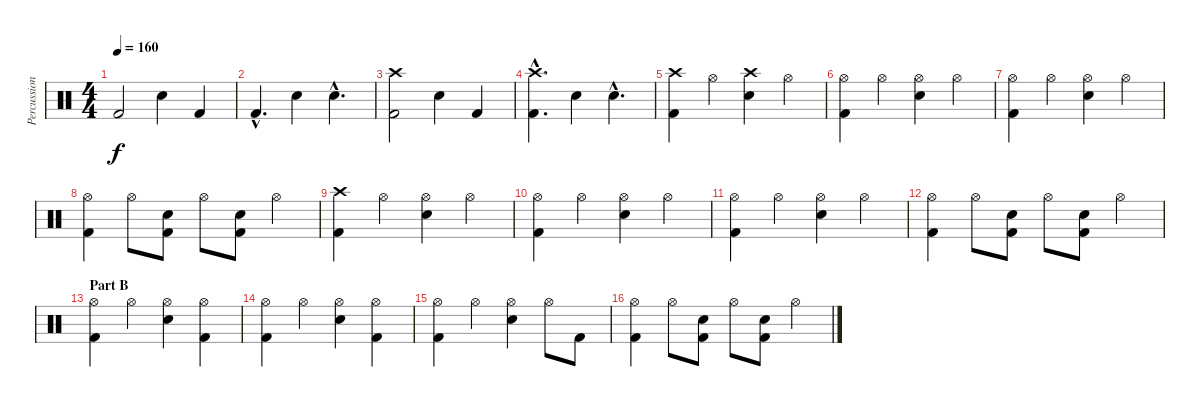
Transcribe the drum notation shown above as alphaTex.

\track ("Percussion" "Percussion") {instrument percussion}
\staff {score}
\articulation defaults
\ts (4 4)
\tempo 160
\clef neutral
\ks c "Kick (hit) 2".2{dy f} "Electric Snare (hit)".4 "Kick (hit) 2".4
|
"Kick (hit) 2"{hac}.4{d} "Electric Snare (hit)".4 "Electric Snare (hit)"{hac}.4{d} |
("Crash high (hit)" "Kick (hit) 2").2 "Electric Snare (hit)".4 "Kick (hit) 2".4 |
("Crash high (hit)"{hac} "Kick (hit) 2"{hac}).4{d} "Electric Snare (hit)".4 "Electric Snare (hit)"{hac}.4{d} |
("Crash high (hit)" "Kick (hit) 2").4 "Hi-Hat (open)".4 ("Crash high (hit)" "Electric Snare (hit)").4 "Hi-Hat (open)".4 |
("Hi-Hat (open)" "Kick (hit) 2").4 "Hi-Hat (open)".4 ("Hi-Hat (open)" "Electric Snare (hit)").4 "Hi-Hat (open)".4 |
("Hi-Hat (open)" "Kick (hit) 2").4 "Hi-Hat (open)".4 ("Hi-Hat (open)" "Electric Snare (hit)").4 "Hi-Hat (open)".4 |
("Hi-Hat (open)" "Kick (hit) 2").4 "Hi-Hat (open)".8 ("Electric Snare (hit)" "Kick (hit) 2").8 "Hi-Hat (open)".8 ("Electric Snare (hit)" "Kick (hit) 2").8 "Hi-Hat (open)".4 |
("Crash high (hit)" "Kick (hit) 2").4 "Hi-Hat (open)".4 ("Hi-Hat (open)" "Electric Snare (hit)").4 "Hi-Hat (open)".4 |
("Hi-Hat (open)" "Kick (hit) 2").4 "Hi-Hat (open)".4 ("Hi-Hat (open)" "Electric Snare (hit)").4 "Hi-Hat (open)".4 |
("Hi-Hat (open)" "Kick (hit) 2").4 "Hi-Hat (open)".4 ("Hi-Hat (open)" "Electric Snare (hit)").4 "Hi-Hat (open)".4 |
("Hi-Hat (open)" "Kick (hit) 2").4 "Hi-Hat (open)".8 ("Electric Snare (hit)" "Kick (hit) 2").8 "Hi-Hat (open)".8 ("Electric Snare (hit)" "Kick (hit) 2").8 "Hi-Hat (open)".4 |
\section ("" "Part B")
("Hi-Hat (open)" "Kick (hit) 2").4 "Hi-Hat (open)".4 ("Hi-Hat (open)" "Electric Snare (hit)").4 ("Hi-Hat (open)" "Kick (hit) 2").4 |
("Hi-Hat (open)" "Kick (hit) 2").4 "Hi-Hat (open)".4 ("Hi-Hat (open)" "Electric Snare (hit)").4 ("Hi-Hat (open)" "Kick (hit) 2").4 |
("Hi-Hat (open)" "Kick (hit) 2").4 "Hi-Hat (open)".4 ("Hi-Hat (open)" "Electric Snare (hit)").4 "Hi-Hat (open)".8 "Kick (hit) 2".8 |
("Hi-Hat (open)" "Kick (hit) 2").4 "Hi-Hat (open)".8 ("Electric Snare (hit)" "Kick (hit) 2").8 "Hi-Hat (open)".8 ("Electric Snare (hit)" "Kick (hit) 2").8 "Hi-Hat (open)".4
